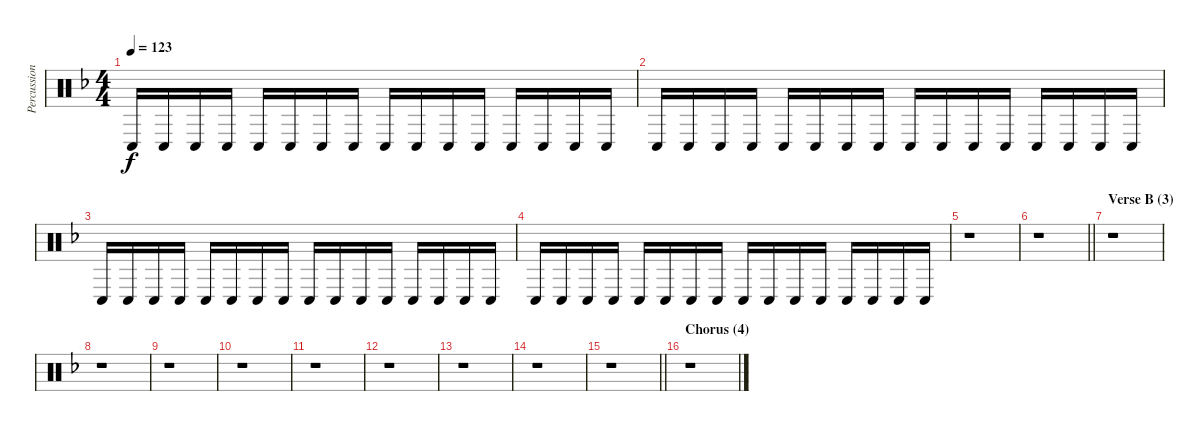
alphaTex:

\track ("Percussion" "Percussion") {instrument percussion}
\staff {score}
\articulation defaults
\ts (4 4)
\tempo 123
\clef neutral
\ks dminor "Conga low (hit)".16{dy f} "Conga low (hit)".16 "Conga low (hit)".16 "Conga low (hit)".16 "Conga low (hit)".16 "Conga low (hit)".16 "Conga low (hit)".16 "Conga low (hit)".16 "Conga low (hit)".16 "Conga low (hit)".16 "Conga low (hit)".16 "Conga low (hit)".16 "Conga low (hit)".16 "Conga low (hit)".16 "Conga low (hit)".16 "Conga low (hit)".16
|
"Conga low (hit)".16 "Conga low (hit)".16 "Conga low (hit)".16 "Conga low (hit)".16 "Conga low (hit)".16 "Conga low (hit)".16 "Conga low (hit)".16 "Conga low (hit)".16 "Conga low (hit)".16 "Conga low (hit)".16 "Conga low (hit)".16 "Conga low (hit)".16 "Conga low (hit)".16 "Conga low (hit)".16 "Conga low (hit)".16 "Conga low (hit)".16 |
"Conga low (hit)".16 "Conga low (hit)".16 "Conga low (hit)".16 "Conga low (hit)".16 "Conga low (hit)".16 "Conga low (hit)".16 "Conga low (hit)".16 "Conga low (hit)".16 "Conga low (hit)".16 "Conga low (hit)".16 "Conga low (hit)".16 "Conga low (hit)".16 "Conga low (hit)".16 "Conga low (hit)".16 "Conga low (hit)".16 "Conga low (hit)".16 |
"Conga low (hit)".16 "Conga low (hit)".16 "Conga low (hit)".16 "Conga low (hit)".16 "Conga low (hit)".16 "Conga low (hit)".16 "Conga low (hit)".16 "Conga low (hit)".16 "Conga low (hit)".16 "Conga low (hit)".16 "Conga low (hit)".16 "Conga low (hit)".16 "Conga low (hit)".16 "Conga low (hit)".16 "Conga low (hit)".16 "Conga low (hit)".16 |
r.1 |
\barLineRight lightlight
r.1 |
\section ("" "Verse B (3)")
r.1 |
r.1 |
r.1 |
r.1 |
r.1 |
r.1 |
r.1 |
r.1 |
\barLineRight lightlight
r.1 |
\section ("" "Chorus (4)")
r.1
